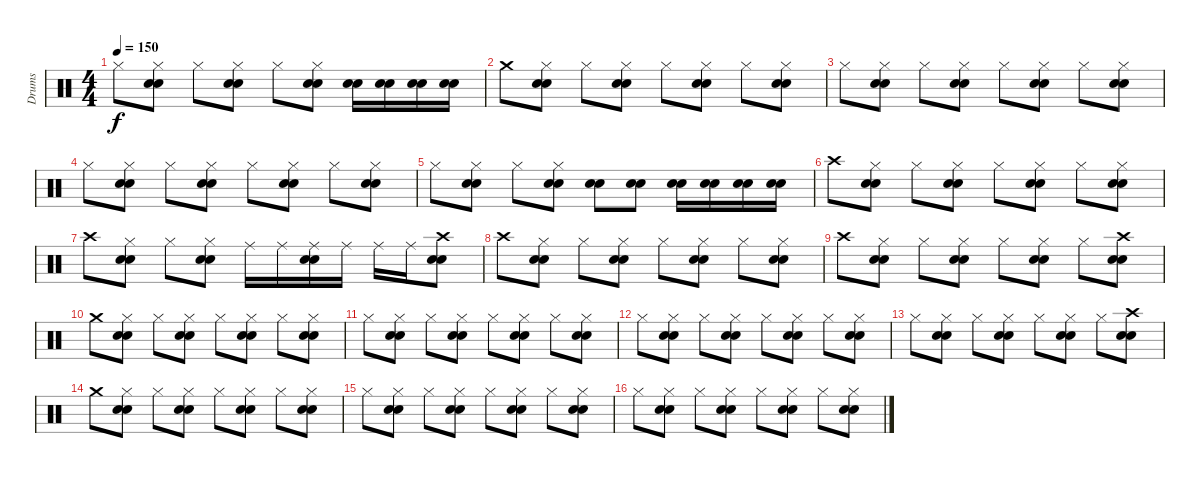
\track ("Drums" "Drums") {instrument percussion}
\staff {score}
\articulation defaults
\ts (4 4)
\tempo 150
\clef neutral
\ks c "Hi-Hat (closed)".8{dy f}
("Hi-Hat (closed)" "Electric Snare (hit)" "Snare (hit) 2").8 "Hi-Hat (closed)".8 ("Hi-Hat (closed)" "Electric Snare (hit)" "Snare (hit) 2").8 "Hi-Hat (closed)".8 ("Hi-Hat (closed)" "Electric Snare (hit)" "Snare (hit) 2").8 ("Electric Snare (hit)" "Snare (hit) 2").16 ("Electric Snare (hit)" "Snare (hit) 2").16 ("Electric Snare (hit)" "Snare (hit) 2").16 ("Electric Snare (hit)" "Snare (hit) 2").16 |
"Crash medium (hit)".8 ("Hi-Hat (closed)" "Electric Snare (hit)" "Snare (hit) 2").8 "Hi-Hat (closed)".8 ("Hi-Hat (closed)" "Electric Snare (hit)" "Snare (hit) 2").8 "Hi-Hat (closed)".8 ("Hi-Hat (closed)" "Electric Snare (hit)" "Snare (hit) 2").8 "Hi-Hat (closed)".8 ("Hi-Hat (closed)" "Electric Snare (hit)" "Snare (hit) 2").8 |
"Hi-Hat (closed)".8 ("Hi-Hat (closed)" "Electric Snare (hit)" "Snare (hit) 2").8 "Hi-Hat (closed)".8 ("Hi-Hat (closed)" "Electric Snare (hit)" "Snare (hit) 2").8 "Hi-Hat (closed)".8 ("Hi-Hat (closed)" "Electric Snare (hit)" "Snare (hit) 2").8 "Hi-Hat (closed)".8 ("Hi-Hat (closed)" "Electric Snare (hit)" "Snare (hit) 2").8 |
"Hi-Hat (closed)".8 ("Hi-Hat (closed)" "Electric Snare (hit)" "Snare (hit) 2").8 "Hi-Hat (closed)".8 ("Hi-Hat (closed)" "Electric Snare (hit)" "Snare (hit) 2").8 "Hi-Hat (closed)".8 ("Hi-Hat (closed)" "Electric Snare (hit)" "Snare (hit) 2").8 "Hi-Hat (closed)".8 ("Hi-Hat (closed)" "Electric Snare (hit)" "Snare (hit) 2").8 |
"Hi-Hat (closed)".8 ("Hi-Hat (closed)" "Electric Snare (hit)" "Snare (hit) 2").8 "Hi-Hat (closed)".8 ("Hi-Hat (closed)" "Electric Snare (hit)" "Snare (hit) 2").8 ("Electric Snare (hit)" "Snare (hit) 2").8 ("Electric Snare (hit)" "Snare (hit) 2").8 ("Electric Snare (hit)" "Snare (hit) 2").16 ("Electric Snare (hit)" "Snare (hit) 2").16 ("Electric Snare (hit)" "Snare (hit) 2").16 ("Electric Snare (hit)" "Snare (hit) 2").16 |
"Crash high (hit)".8 ("Hi-Hat (closed)" "Electric Snare (hit)" "Snare (hit) 2").8 "Hi-Hat (closed)".8 ("Hi-Hat (closed)" "Electric Snare (hit)" "Snare (hit) 2").8 "Hi-Hat (closed)".8 ("Hi-Hat (closed)" "Electric Snare (hit)" "Snare (hit) 2").8 "Hi-Hat (closed)".8 ("Hi-Hat (closed)" "Electric Snare (hit)" "Snare (hit) 2").8 |
"Crash high (hit)".8 ("Hi-Hat (closed)" "Electric Snare (hit)" "Snare (hit) 2").8 "Hi-Hat (closed)".8 ("Hi-Hat (closed)" "Electric Snare (hit)" "Snare (hit) 2").8 "Ride (middle)".16 "Ride (middle)".16 ("Ride (middle)" "Electric Snare (hit)" "Snare (hit) 2").16 "Ride (middle)".16 "Ride (middle)".16 "Ride (middle)".16 ("Crash high (hit)" "Electric Snare (hit)" "Snare (hit) 2").8 |
"Crash high (hit)".8 ("Hi-Hat (closed)" "Electric Snare (hit)" "Snare (hit) 2").8 "Hi-Hat (closed)".8 ("Hi-Hat (closed)" "Electric Snare (hit)" "Snare (hit) 2").8 "Hi-Hat (closed)".8 ("Hi-Hat (closed)" "Electric Snare (hit)" "Snare (hit) 2").8 "Hi-Hat (closed)".8 ("Hi-Hat (closed)" "Electric Snare (hit)" "Snare (hit) 2").8 |
"Crash high (hit)".8 ("Hi-Hat (closed)" "Electric Snare (hit)" "Snare (hit) 2").8 "Hi-Hat (closed)".8 ("Hi-Hat (closed)" "Electric Snare (hit)" "Snare (hit) 2").8 "Hi-Hat (closed)".8 ("Hi-Hat (closed)" "Electric Snare (hit)" "Snare (hit) 2").8 "Hi-Hat (closed)".8 ("Crash high (hit)" "Electric Snare (hit)" "Snare (hit) 2").8 |
"Crash medium (hit)".8 ("Hi-Hat (closed)" "Electric Snare (hit)" "Snare (hit) 2").8 "Hi-Hat (closed)".8 ("Hi-Hat (closed)" "Electric Snare (hit)" "Snare (hit) 2").8 "Hi-Hat (closed)".8 ("Hi-Hat (closed)" "Electric Snare (hit)" "Snare (hit) 2").8 "Hi-Hat (closed)".8 ("Hi-Hat (closed)" "Electric Snare (hit)" "Snare (hit) 2").8 |
"Hi-Hat (closed)".8 ("Hi-Hat (closed)" "Electric Snare (hit)" "Snare (hit) 2").8 "Hi-Hat (closed)".8 ("Hi-Hat (closed)" "Electric Snare (hit)" "Snare (hit) 2").8 "Hi-Hat (closed)".8 ("Hi-Hat (closed)" "Electric Snare (hit)" "Snare (hit) 2").8 "Hi-Hat (closed)".8 ("Hi-Hat (closed)" "Electric Snare (hit)" "Snare (hit) 2").8 |
"Hi-Hat (closed)".8 ("Hi-Hat (closed)" "Electric Snare (hit)" "Snare (hit) 2").8 "Hi-Hat (closed)".8 ("Hi-Hat (closed)" "Electric Snare (hit)" "Snare (hit) 2").8 "Hi-Hat (closed)".8 ("Hi-Hat (closed)" "Electric Snare (hit)" "Snare (hit) 2").8 "Hi-Hat (closed)".8 ("Hi-Hat (closed)" "Electric Snare (hit)" "Snare (hit) 2").8 |
"Hi-Hat (closed)".8 ("Hi-Hat (closed)" "Electric Snare (hit)" "Snare (hit) 2").8 "Hi-Hat (closed)".8 ("Hi-Hat (closed)" "Electric Snare (hit)" "Snare (hit) 2").8 "Hi-Hat (closed)".8 ("Hi-Hat (closed)" "Electric Snare (hit)" "Snare (hit) 2").8 "Hi-Hat (closed)".8 ("Crash high (hit)" "Electric Snare (hit)" "Snare (hit) 2").8 |
"Crash medium (hit)".8 ("Hi-Hat (closed)" "Electric Snare (hit)" "Snare (hit) 2").8 "Hi-Hat (closed)".8 ("Hi-Hat (closed)" "Electric Snare (hit)" "Snare (hit) 2").8 "Hi-Hat (closed)".8 ("Hi-Hat (closed)" "Electric Snare (hit)" "Snare (hit) 2").8 "Hi-Hat (closed)".8 ("Hi-Hat (closed)" "Electric Snare (hit)" "Snare (hit) 2").8 |
"Hi-Hat (closed)".8 ("Hi-Hat (closed)" "Electric Snare (hit)" "Snare (hit) 2").8 "Hi-Hat (closed)".8 ("Hi-Hat (closed)" "Electric Snare (hit)" "Snare (hit) 2").8 "Hi-Hat (closed)".8 ("Hi-Hat (closed)" "Electric Snare (hit)" "Snare (hit) 2").8 "Hi-Hat (closed)".8 ("Hi-Hat (closed)" "Electric Snare (hit)" "Snare (hit) 2").8 |
"Hi-Hat (closed)".8 ("Hi-Hat (closed)" "Electric Snare (hit)" "Snare (hit) 2").8 "Hi-Hat (closed)".8 ("Hi-Hat (closed)" "Electric Snare (hit)" "Snare (hit) 2").8 "Hi-Hat (closed)".8 ("Hi-Hat (closed)" "Electric Snare (hit)" "Snare (hit) 2").8 "Hi-Hat (closed)".8 ("Hi-Hat (closed)" "Electric Snare (hit)" "Snare (hit) 2").8
